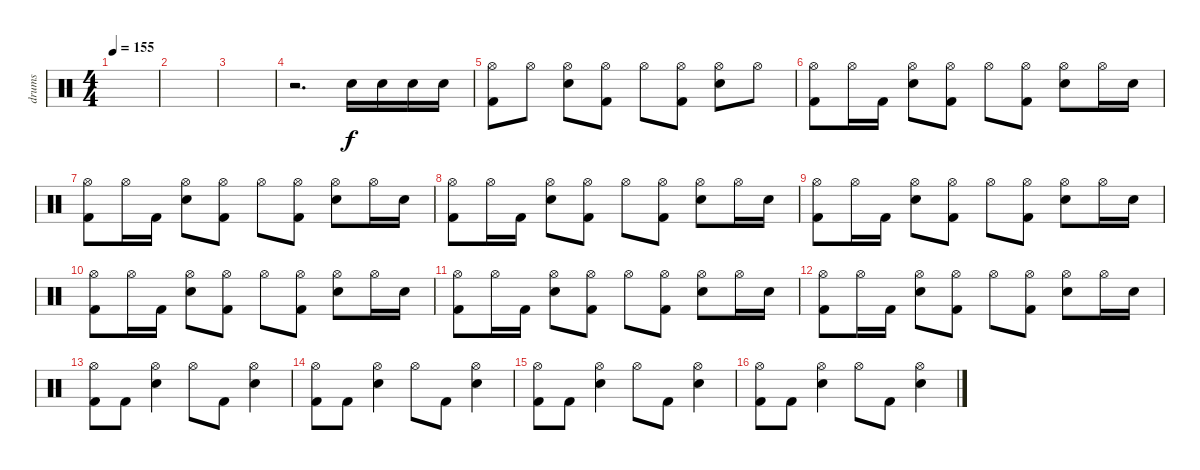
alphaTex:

\track ("drums" "drums") {instrument percussion}
\staff {score}
\articulation defaults
\ts (4 4)
\tempo 155
\clef neutral
\ks c
|
|
|
r.2{d} "Electric Snare (hit)".16 "Electric Snare (hit)".16 "Electric Snare (hit)".16 "Electric Snare (hit)".16 |
("Hi-Hat (open)" "Kick (hit) 2").8 "Hi-Hat (open)".8 ("Hi-Hat (open)" "Electric Snare (hit)").8 ("Hi-Hat (open)" "Kick (hit) 2").8 "Hi-Hat (open)".8 ("Hi-Hat (open)" "Kick (hit) 2").8 ("Hi-Hat (open)" "Electric Snare (hit)").8 "Hi-Hat (open)".8 |
("Hi-Hat (open)" "Kick (hit) 2").8 "Hi-Hat (open)".16 "Kick (hit) 2".16 ("Hi-Hat (open)" "Electric Snare (hit)").8 ("Hi-Hat (open)" "Kick (hit) 2").8 "Hi-Hat (open)".8 ("Hi-Hat (open)" "Kick (hit) 2").8 ("Hi-Hat (open)" "Electric Snare (hit)").8 "Hi-Hat (open)".16 "Electric Snare (hit)".16 |
("Hi-Hat (open)" "Kick (hit) 2").8 "Hi-Hat (open)".16 "Kick (hit) 2".16 ("Hi-Hat (open)" "Electric Snare (hit)").8 ("Hi-Hat (open)" "Kick (hit) 2").8 "Hi-Hat (open)".8 ("Hi-Hat (open)" "Kick (hit) 2").8 ("Hi-Hat (open)" "Electric Snare (hit)").8 "Hi-Hat (open)".16 "Electric Snare (hit)".16 |
("Hi-Hat (open)" "Kick (hit) 2").8 "Hi-Hat (open)".16 "Kick (hit) 2".16 ("Hi-Hat (open)" "Electric Snare (hit)").8 ("Hi-Hat (open)" "Kick (hit) 2").8 "Hi-Hat (open)".8 ("Hi-Hat (open)" "Kick (hit) 2").8 ("Hi-Hat (open)" "Electric Snare (hit)").8 "Hi-Hat (open)".16 "Electric Snare (hit)".16 |
("Hi-Hat (open)" "Kick (hit) 2").8 "Hi-Hat (open)".16 "Kick (hit) 2".16 ("Hi-Hat (open)" "Electric Snare (hit)").8 ("Hi-Hat (open)" "Kick (hit) 2").8 "Hi-Hat (open)".8 ("Hi-Hat (open)" "Kick (hit) 2").8 ("Hi-Hat (open)" "Electric Snare (hit)").8 "Hi-Hat (open)".16 "Electric Snare (hit)".16 |
("Hi-Hat (open)" "Kick (hit) 2").8 "Hi-Hat (open)".16 "Kick (hit) 2".16 ("Hi-Hat (open)" "Electric Snare (hit)").8 ("Hi-Hat (open)" "Kick (hit) 2").8 "Hi-Hat (open)".8 ("Hi-Hat (open)" "Kick (hit) 2").8 ("Hi-Hat (open)" "Electric Snare (hit)").8 "Hi-Hat (open)".16 "Electric Snare (hit)".16 |
("Hi-Hat (open)" "Kick (hit) 2").8 "Hi-Hat (open)".16 "Kick (hit) 2".16 ("Hi-Hat (open)" "Electric Snare (hit)").8 ("Hi-Hat (open)" "Kick (hit) 2").8 "Hi-Hat (open)".8 ("Hi-Hat (open)" "Kick (hit) 2").8 ("Hi-Hat (open)" "Electric Snare (hit)").8 "Hi-Hat (open)".16 "Electric Snare (hit)".16 |
("Hi-Hat (open)" "Kick (hit) 2").8 "Hi-Hat (open)".16 "Kick (hit) 2".16 ("Hi-Hat (open)" "Electric Snare (hit)").8 ("Hi-Hat (open)" "Kick (hit) 2").8 "Hi-Hat (open)".8 ("Hi-Hat (open)" "Kick (hit) 2").8 ("Hi-Hat (open)" "Electric Snare (hit)").8 "Hi-Hat (open)".16 "Electric Snare (hit)".16 |
("Hi-Hat (open)" "Kick (hit) 2").8 "Kick (hit) 2".8 ("Hi-Hat (open)" "Electric Snare (hit)").4 "Hi-Hat (open)".8 "Kick (hit) 2".8 ("Hi-Hat (open)" "Electric Snare (hit)").4 |
("Hi-Hat (open)" "Kick (hit) 2").8 "Kick (hit) 2".8 ("Hi-Hat (open)" "Electric Snare (hit)").4 "Hi-Hat (open)".8 "Kick (hit) 2".8 ("Hi-Hat (open)" "Electric Snare (hit)").4 |
("Hi-Hat (open)" "Kick (hit) 2").8 "Kick (hit) 2".8 ("Hi-Hat (open)" "Electric Snare (hit)").4 "Hi-Hat (open)".8 "Kick (hit) 2".8 ("Hi-Hat (open)" "Electric Snare (hit)").4 |
("Hi-Hat (open)" "Kick (hit) 2").8 "Kick (hit) 2".8 ("Hi-Hat (open)" "Electric Snare (hit)").4 "Hi-Hat (open)".8 "Kick (hit) 2".8 ("Hi-Hat (open)" "Electric Snare (hit)").4
